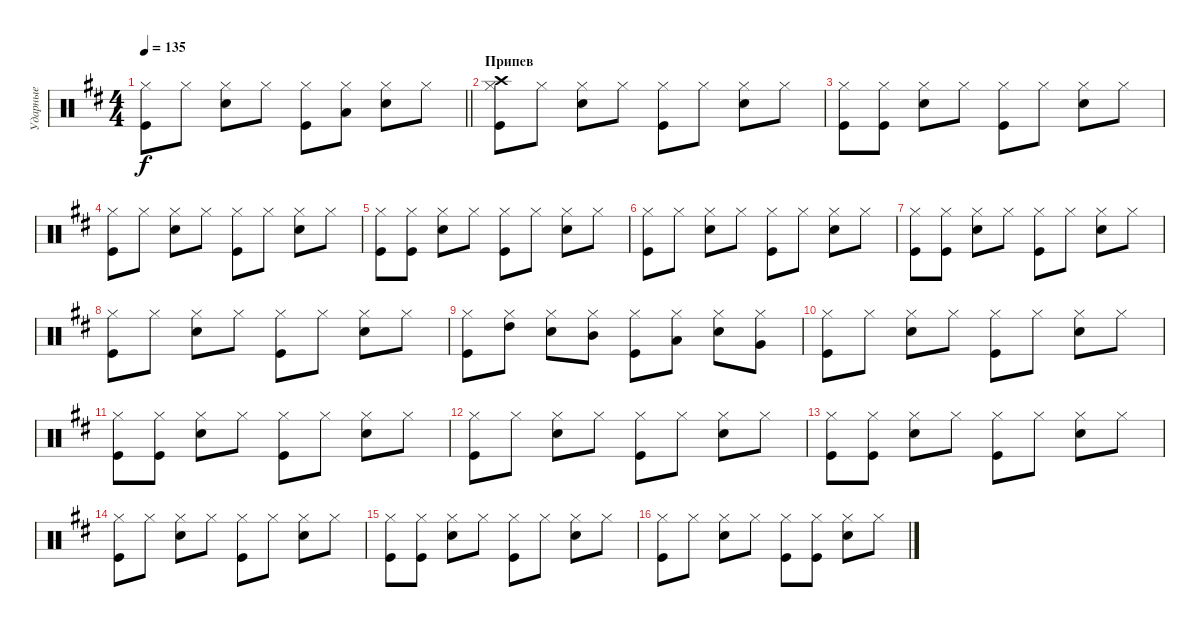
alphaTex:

\track ("Ударные" "Ударные") {solo instrument percussion}
\staff {score}
\articulation defaults
\ts (4 4)
\tempo 135
\clef neutral
\barLineRight lightlight
\ks bminor
("Kick (hit)" "Hi-Hat (closed)").8{dy f} "Hi-Hat (closed)".8 ("Hi-Hat (closed)" "Snare (hit) 2").8 "Hi-Hat (closed)".8 ("Kick (hit)" "Hi-Hat (closed)").8 ("Low Tom (hit)" "Hi-Hat (closed)").8 ("Hi-Hat (closed)" "Snare (hit) 2").8 "Hi-Hat (closed)".8 |
\section ("" "Припев")
("Kick (hit)" "Hi-Hat (closed)" "Crash high (hit)").8 "Hi-Hat (closed)".8 ("Hi-Hat (closed)" "Snare (hit) 2").8 "Hi-Hat (closed)".8 ("Kick (hit)" "Hi-Hat (closed)").8 "Hi-Hat (closed)".8 ("Hi-Hat (closed)" "Snare (hit) 2").8 "Hi-Hat (closed)".8 |
("Kick (hit)" "Hi-Hat (closed)").8 ("Kick (hit)" "Hi-Hat (closed)").8 ("Hi-Hat (closed)" "Snare (hit) 2").8 "Hi-Hat (closed)".8 ("Kick (hit)" "Hi-Hat (closed)").8 "Hi-Hat (closed)".8 ("Hi-Hat (closed)" "Snare (hit) 2").8 "Hi-Hat (closed)".8 |
("Kick (hit)" "Hi-Hat (closed)").8 "Hi-Hat (closed)".8 ("Hi-Hat (closed)" "Snare (hit) 2").8 "Hi-Hat (closed)".8 ("Kick (hit)" "Hi-Hat (closed)").8 "Hi-Hat (closed)".8 ("Hi-Hat (closed)" "Snare (hit) 2").8 "Hi-Hat (closed)".8 |
("Kick (hit)" "Hi-Hat (closed)").8 ("Kick (hit)" "Hi-Hat (closed)").8 ("Hi-Hat (closed)" "Snare (hit) 2").8 "Hi-Hat (closed)".8 ("Kick (hit)" "Hi-Hat (closed)").8 "Hi-Hat (closed)".8 ("Hi-Hat (closed)" "Snare (hit) 2").8 "Hi-Hat (closed)".8 |
("Kick (hit)" "Hi-Hat (closed)").8 "Hi-Hat (closed)".8 ("Hi-Hat (closed)" "Snare (hit) 2").8 "Hi-Hat (closed)".8 ("Kick (hit)" "Hi-Hat (closed)").8 "Hi-Hat (closed)".8 ("Hi-Hat (closed)" "Snare (hit) 2").8 "Hi-Hat (closed)".8 |
("Kick (hit)" "Hi-Hat (closed)").8 ("Kick (hit)" "Hi-Hat (closed)").8 ("Hi-Hat (closed)" "Snare (hit) 2").8 "Hi-Hat (closed)".8 ("Kick (hit)" "Hi-Hat (closed)").8 "Hi-Hat (closed)".8 ("Hi-Hat (closed)" "Snare (hit) 2").8 "Hi-Hat (closed)".8 |
("Kick (hit)" "Hi-Hat (closed)").8 "Hi-Hat (closed)".8 ("Hi-Hat (closed)" "Snare (hit) 2").8 "Hi-Hat (closed)".8 ("Kick (hit)" "Hi-Hat (closed)").8 "Hi-Hat (closed)".8 ("Hi-Hat (closed)" "Snare (hit) 2").8 "Hi-Hat (closed)".8 |
("Kick (hit)" "Hi-Hat (closed)").8 ("High Tom (hit)" "Hi-Hat (closed)").8 ("Hi-Hat (closed)" "Snare (hit) 2").8 ("Mid Tom (hit)" "Hi-Hat (closed)").8 ("Kick (hit)" "Hi-Hat (closed)").8 ("Low Tom (hit)" "Hi-Hat (closed)").8 ("Hi-Hat (closed)" "Snare (hit) 2").8 ("Very Low Tom (hit)" "Hi-Hat (closed)").8 |
("Kick (hit)" "Hi-Hat (closed)").8 "Hi-Hat (closed)".8 ("Hi-Hat (closed)" "Snare (hit) 2").8 "Hi-Hat (closed)".8 ("Kick (hit)" "Hi-Hat (closed)").8 "Hi-Hat (closed)".8 ("Hi-Hat (closed)" "Snare (hit) 2").8 "Hi-Hat (closed)".8 |
("Kick (hit)" "Hi-Hat (closed)").8 ("Kick (hit)" "Hi-Hat (closed)").8 ("Hi-Hat (closed)" "Snare (hit) 2").8 "Hi-Hat (closed)".8 ("Kick (hit)" "Hi-Hat (closed)").8 "Hi-Hat (closed)".8 ("Hi-Hat (closed)" "Snare (hit) 2").8 "Hi-Hat (closed)".8 |
("Kick (hit)" "Hi-Hat (closed)").8 "Hi-Hat (closed)".8 ("Hi-Hat (closed)" "Snare (hit) 2").8 "Hi-Hat (closed)".8 ("Kick (hit)" "Hi-Hat (closed)").8 "Hi-Hat (closed)".8 ("Hi-Hat (closed)" "Snare (hit) 2").8 "Hi-Hat (closed)".8 |
("Kick (hit)" "Hi-Hat (closed)").8 ("Kick (hit)" "Hi-Hat (closed)").8 ("Hi-Hat (closed)" "Snare (hit) 2").8 "Hi-Hat (closed)".8 ("Kick (hit)" "Hi-Hat (closed)").8 "Hi-Hat (closed)".8 ("Hi-Hat (closed)" "Snare (hit) 2").8 "Hi-Hat (closed)".8 |
("Kick (hit)" "Hi-Hat (closed)").8 "Hi-Hat (closed)".8 ("Hi-Hat (closed)" "Snare (hit) 2").8 "Hi-Hat (closed)".8 ("Kick (hit)" "Hi-Hat (closed)").8 "Hi-Hat (closed)".8 ("Hi-Hat (closed)" "Snare (hit) 2").8 "Hi-Hat (closed)".8 |
("Kick (hit)" "Hi-Hat (closed)").8 ("Kick (hit)" "Hi-Hat (closed)").8 ("Hi-Hat (closed)" "Snare (hit) 2").8 "Hi-Hat (closed)".8 ("Kick (hit)" "Hi-Hat (closed)").8 "Hi-Hat (closed)".8 ("Hi-Hat (closed)" "Snare (hit) 2").8 "Hi-Hat (closed)".8 |
("Kick (hit)" "Hi-Hat (closed)").8 "Hi-Hat (closed)".8 ("Hi-Hat (closed)" "Snare (hit) 2").8 "Hi-Hat (closed)".8 ("Kick (hit)" "Hi-Hat (closed)").8 ("Kick (hit)" "Hi-Hat (closed)").8 ("Hi-Hat (closed)" "Snare (hit) 2").8 "Hi-Hat (closed)".8
